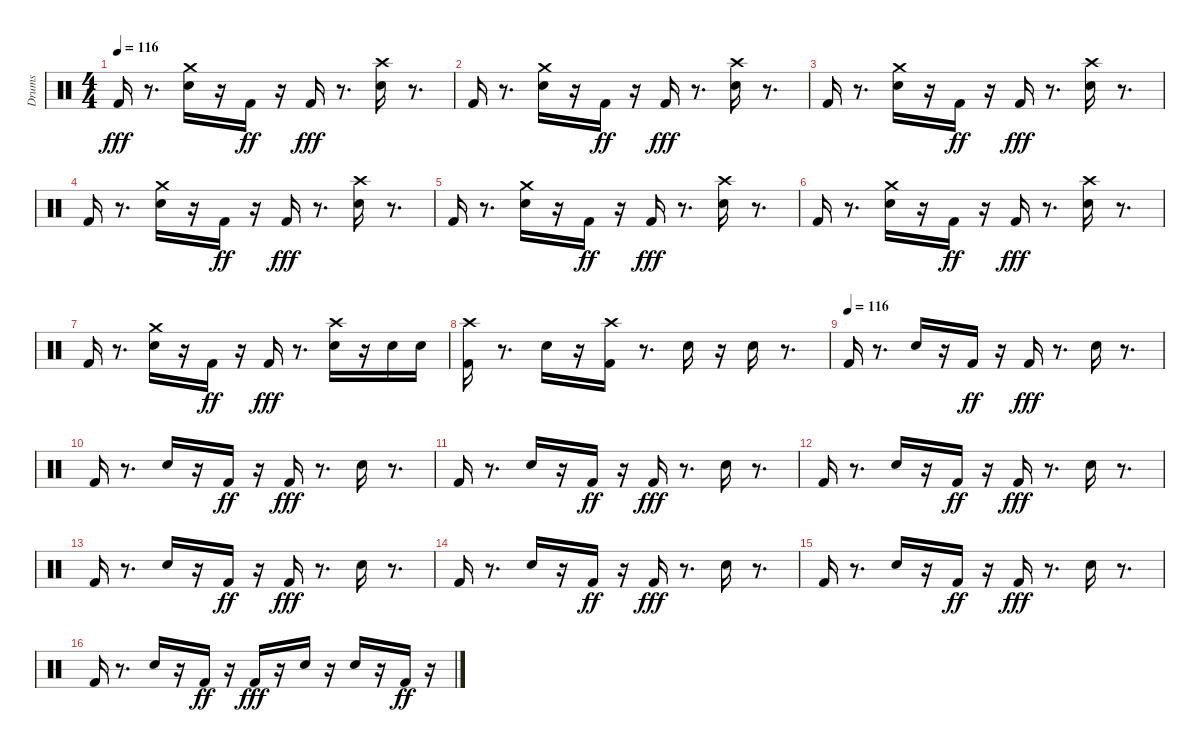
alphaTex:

\track ("Drums" "Drums") {instrument percussion}
\staff {score}
\articulation defaults
\ts (4 4)
\tempo 116
\clef neutral
\ks c "Kick (hit) 2".16{dy fff}
r.8{d} ("Crash medium (hit)" "Snare (hit) 2").16 r.16 "Kick (hit) 2".16{dy ff} r.16 "Kick (hit) 2".16{dy fff} r.8{d} ("Crash high (hit)" "Snare (hit) 2").16 r.8{d} |
"Kick (hit) 2".16 r.8{d} ("Crash medium (hit)" "Snare (hit) 2").16 r.16 "Kick (hit) 2".16{dy ff} r.16 "Kick (hit) 2".16{dy fff} r.8{d} ("Crash high (hit)" "Snare (hit) 2").16 r.8{d} |
"Kick (hit) 2".16 r.8{d} ("Crash medium (hit)" "Snare (hit) 2").16 r.16 "Kick (hit) 2".16{dy ff} r.16 "Kick (hit) 2".16{dy fff} r.8{d} ("Crash high (hit)" "Snare (hit) 2").16 r.8{d} |
"Kick (hit) 2".16 r.8{d} ("Crash medium (hit)" "Snare (hit) 2").16 r.16 "Kick (hit) 2".16{dy ff} r.16 "Kick (hit) 2".16{dy fff} r.8{d} ("Crash high (hit)" "Snare (hit) 2").16 r.8{d} |
"Kick (hit) 2".16 r.8{d} ("Crash medium (hit)" "Snare (hit) 2").16 r.16 "Kick (hit) 2".16{dy ff} r.16 "Kick (hit) 2".16{dy fff} r.8{d} ("Crash high (hit)" "Snare (hit) 2").16 r.8{d} |
"Kick (hit) 2".16 r.8{d} ("Crash medium (hit)" "Snare (hit) 2").16 r.16 "Kick (hit) 2".16{dy ff} r.16 "Kick (hit) 2".16{dy fff} r.8{d} ("Crash high (hit)" "Snare (hit) 2").16 r.8{d} |
"Kick (hit) 2".16 r.8{d} ("Crash medium (hit)" "Snare (hit) 2").16 r.16 "Kick (hit) 2".16{dy ff} r.16 "Kick (hit) 2".16{dy fff} r.8{d} ("Crash high (hit)" "Snare (hit) 2").16 r.16 "Snare (hit) 2".16 "Snare (hit) 2".16 |
("Crash high (hit)" "Kick (hit) 2").16 r.8{d} "Snare (hit) 2".16 r.16 ("Crash high (hit)" "Kick (hit) 2").16 r.8{d} "Snare (hit) 2".16 r.16 "Snare (hit) 2".16 r.8{d} |
\tempo (116)
"Kick (hit) 2".16 r.8{d} "Snare (hit) 2".16 r.16 "Kick (hit) 2".16{dy ff} r.16 "Kick (hit) 2".16{dy fff} r.8{d} "Snare (hit) 2".16 r.8{d} |
"Kick (hit) 2".16 r.8{d} "Snare (hit) 2".16 r.16 "Kick (hit) 2".16{dy ff} r.16 "Kick (hit) 2".16{dy fff} r.8{d} "Snare (hit) 2".16 r.8{d} |
"Kick (hit) 2".16 r.8{d} "Snare (hit) 2".16 r.16 "Kick (hit) 2".16{dy ff} r.16 "Kick (hit) 2".16{dy fff} r.8{d} "Snare (hit) 2".16 r.8{d} |
"Kick (hit) 2".16 r.8{d} "Snare (hit) 2".16 r.16 "Kick (hit) 2".16{dy ff} r.16 "Kick (hit) 2".16{dy fff} r.8{d} "Snare (hit) 2".16 r.8{d} |
"Kick (hit) 2".16 r.8{d} "Snare (hit) 2".16 r.16 "Kick (hit) 2".16{dy ff} r.16 "Kick (hit) 2".16{dy fff} r.8{d} "Snare (hit) 2".16 r.8{d} |
"Kick (hit) 2".16 r.8{d} "Snare (hit) 2".16 r.16 "Kick (hit) 2".16{dy ff} r.16 "Kick (hit) 2".16{dy fff} r.8{d} "Snare (hit) 2".16 r.8{d} |
"Kick (hit) 2".16 r.8{d} "Snare (hit) 2".16 r.16 "Kick (hit) 2".16{dy ff} r.16 "Kick (hit) 2".16{dy fff} r.8{d} "Snare (hit) 2".16 r.8{d} |
"Kick (hit) 2".16 r.8{d} "Snare (hit) 2".16 r.16 "Kick (hit) 2".16{dy ff} r.16 "Kick (hit) 2".16{dy fff} r.16 "Snare (hit) 2".16 r.16 "Snare (hit) 2".16 r.16 "Kick (hit) 2".16{dy ff} r.16
